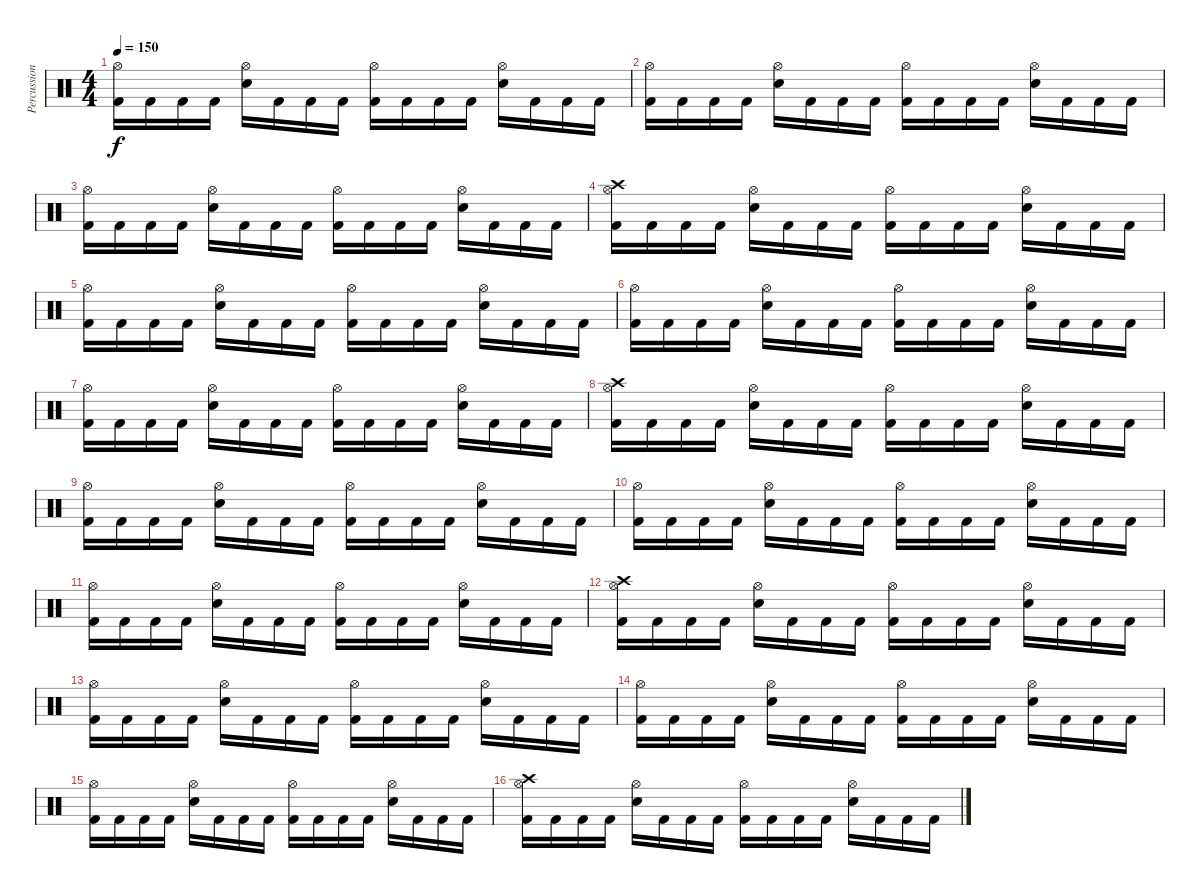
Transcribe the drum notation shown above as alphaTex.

\track ("Percussions" "Percussion") {instrument percussion}
\staff {score}
\articulation defaults
\ts (4 4)
\tempo 150
\clef neutral
\ks c
("Hi-Hat (open)" "Kick (hit) 2").16{dy f} "Kick (hit) 2".16 "Kick (hit) 2".16 "Kick (hit) 2".16 ("Hi-Hat (open)" "Electric Snare (hit)").16 "Kick (hit) 2".16 "Kick (hit) 2".16 "Kick (hit) 2".16 ("Hi-Hat (open)" "Kick (hit) 2").16 "Kick (hit) 2".16 "Kick (hit) 2".16 "Kick (hit) 2".16 ("Hi-Hat (open)" "Electric Snare (hit)").16 "Kick (hit) 2".16 "Kick (hit) 2".16 "Kick (hit) 2".16 |
("Hi-Hat (open)" "Kick (hit) 2").16 "Kick (hit) 2".16 "Kick (hit) 2".16 "Kick (hit) 2".16 ("Hi-Hat (open)" "Electric Snare (hit)").16 "Kick (hit) 2".16 "Kick (hit) 2".16 "Kick (hit) 2".16 ("Hi-Hat (open)" "Kick (hit) 2").16 "Kick (hit) 2".16 "Kick (hit) 2".16 "Kick (hit) 2".16 ("Hi-Hat (open)" "Electric Snare (hit)").16 "Kick (hit) 2".16 "Kick (hit) 2".16 "Kick (hit) 2".16 |
("Hi-Hat (open)" "Kick (hit) 2").16 "Kick (hit) 2".16 "Kick (hit) 2".16 "Kick (hit) 2".16 ("Hi-Hat (open)" "Electric Snare (hit)").16 "Kick (hit) 2".16 "Kick (hit) 2".16 "Kick (hit) 2".16 ("Hi-Hat (open)" "Kick (hit) 2").16 "Kick (hit) 2".16 "Kick (hit) 2".16 "Kick (hit) 2".16 ("Hi-Hat (open)" "Electric Snare (hit)").16 "Kick (hit) 2".16 "Kick (hit) 2".16 "Kick (hit) 2".16 |
("Crash high (hit)" "Hi-Hat (open)" "Kick (hit) 2").16 "Kick (hit) 2".16 "Kick (hit) 2".16 "Kick (hit) 2".16 ("Hi-Hat (open)" "Electric Snare (hit)").16 "Kick (hit) 2".16 "Kick (hit) 2".16 "Kick (hit) 2".16 ("Hi-Hat (open)" "Kick (hit) 2").16 "Kick (hit) 2".16 "Kick (hit) 2".16 "Kick (hit) 2".16 ("Hi-Hat (open)" "Electric Snare (hit)").16 "Kick (hit) 2".16 "Kick (hit) 2".16 "Kick (hit) 2".16 |
("Hi-Hat (open)" "Kick (hit) 2").16 "Kick (hit) 2".16 "Kick (hit) 2".16 "Kick (hit) 2".16 ("Hi-Hat (open)" "Electric Snare (hit)").16 "Kick (hit) 2".16 "Kick (hit) 2".16 "Kick (hit) 2".16 ("Hi-Hat (open)" "Kick (hit) 2").16 "Kick (hit) 2".16 "Kick (hit) 2".16 "Kick (hit) 2".16 ("Hi-Hat (open)" "Electric Snare (hit)").16 "Kick (hit) 2".16 "Kick (hit) 2".16 "Kick (hit) 2".16 |
("Hi-Hat (open)" "Kick (hit) 2").16 "Kick (hit) 2".16 "Kick (hit) 2".16 "Kick (hit) 2".16 ("Hi-Hat (open)" "Electric Snare (hit)").16 "Kick (hit) 2".16 "Kick (hit) 2".16 "Kick (hit) 2".16 ("Hi-Hat (open)" "Kick (hit) 2").16 "Kick (hit) 2".16 "Kick (hit) 2".16 "Kick (hit) 2".16 ("Hi-Hat (open)" "Electric Snare (hit)").16 "Kick (hit) 2".16 "Kick (hit) 2".16 "Kick (hit) 2".16 |
("Hi-Hat (open)" "Kick (hit) 2").16 "Kick (hit) 2".16 "Kick (hit) 2".16 "Kick (hit) 2".16 ("Hi-Hat (open)" "Electric Snare (hit)").16 "Kick (hit) 2".16 "Kick (hit) 2".16 "Kick (hit) 2".16 ("Hi-Hat (open)" "Kick (hit) 2").16 "Kick (hit) 2".16 "Kick (hit) 2".16 "Kick (hit) 2".16 ("Hi-Hat (open)" "Electric Snare (hit)").16 "Kick (hit) 2".16 "Kick (hit) 2".16 "Kick (hit) 2".16 |
("Crash high (hit)" "Hi-Hat (open)" "Kick (hit) 2").16 "Kick (hit) 2".16 "Kick (hit) 2".16 "Kick (hit) 2".16 ("Hi-Hat (open)" "Electric Snare (hit)").16 "Kick (hit) 2".16 "Kick (hit) 2".16 "Kick (hit) 2".16 ("Hi-Hat (open)" "Kick (hit) 2").16 "Kick (hit) 2".16 "Kick (hit) 2".16 "Kick (hit) 2".16 ("Hi-Hat (open)" "Electric Snare (hit)").16 "Kick (hit) 2".16 "Kick (hit) 2".16 "Kick (hit) 2".16 |
("Hi-Hat (open)" "Kick (hit) 2").16 "Kick (hit) 2".16 "Kick (hit) 2".16 "Kick (hit) 2".16 ("Hi-Hat (open)" "Electric Snare (hit)").16 "Kick (hit) 2".16 "Kick (hit) 2".16 "Kick (hit) 2".16 ("Hi-Hat (open)" "Kick (hit) 2").16 "Kick (hit) 2".16 "Kick (hit) 2".16 "Kick (hit) 2".16 ("Hi-Hat (open)" "Electric Snare (hit)").16 "Kick (hit) 2".16 "Kick (hit) 2".16 "Kick (hit) 2".16 |
("Hi-Hat (open)" "Kick (hit) 2").16 "Kick (hit) 2".16 "Kick (hit) 2".16 "Kick (hit) 2".16 ("Hi-Hat (open)" "Electric Snare (hit)").16 "Kick (hit) 2".16 "Kick (hit) 2".16 "Kick (hit) 2".16 ("Hi-Hat (open)" "Kick (hit) 2").16 "Kick (hit) 2".16 "Kick (hit) 2".16 "Kick (hit) 2".16 ("Hi-Hat (open)" "Electric Snare (hit)").16 "Kick (hit) 2".16 "Kick (hit) 2".16 "Kick (hit) 2".16 |
("Hi-Hat (open)" "Kick (hit) 2").16 "Kick (hit) 2".16 "Kick (hit) 2".16 "Kick (hit) 2".16 ("Hi-Hat (open)" "Electric Snare (hit)").16 "Kick (hit) 2".16 "Kick (hit) 2".16 "Kick (hit) 2".16 ("Hi-Hat (open)" "Kick (hit) 2").16 "Kick (hit) 2".16 "Kick (hit) 2".16 "Kick (hit) 2".16 ("Hi-Hat (open)" "Electric Snare (hit)").16 "Kick (hit) 2".16 "Kick (hit) 2".16 "Kick (hit) 2".16 |
("Crash high (hit)" "Hi-Hat (open)" "Kick (hit) 2").16 "Kick (hit) 2".16 "Kick (hit) 2".16 "Kick (hit) 2".16 ("Hi-Hat (open)" "Electric Snare (hit)").16 "Kick (hit) 2".16 "Kick (hit) 2".16 "Kick (hit) 2".16 ("Hi-Hat (open)" "Kick (hit) 2").16 "Kick (hit) 2".16 "Kick (hit) 2".16 "Kick (hit) 2".16 ("Hi-Hat (open)" "Electric Snare (hit)").16 "Kick (hit) 2".16 "Kick (hit) 2".16 "Kick (hit) 2".16 |
("Hi-Hat (open)" "Kick (hit) 2").16 "Kick (hit) 2".16 "Kick (hit) 2".16 "Kick (hit) 2".16 ("Hi-Hat (open)" "Electric Snare (hit)").16 "Kick (hit) 2".16 "Kick (hit) 2".16 "Kick (hit) 2".16 ("Hi-Hat (open)" "Kick (hit) 2").16 "Kick (hit) 2".16 "Kick (hit) 2".16 "Kick (hit) 2".16 ("Hi-Hat (open)" "Electric Snare (hit)").16 "Kick (hit) 2".16 "Kick (hit) 2".16 "Kick (hit) 2".16 |
("Hi-Hat (open)" "Kick (hit) 2").16 "Kick (hit) 2".16 "Kick (hit) 2".16 "Kick (hit) 2".16 ("Hi-Hat (open)" "Electric Snare (hit)").16 "Kick (hit) 2".16 "Kick (hit) 2".16 "Kick (hit) 2".16 ("Hi-Hat (open)" "Kick (hit) 2").16 "Kick (hit) 2".16 "Kick (hit) 2".16 "Kick (hit) 2".16 ("Hi-Hat (open)" "Electric Snare (hit)").16 "Kick (hit) 2".16 "Kick (hit) 2".16 "Kick (hit) 2".16 |
("Hi-Hat (open)" "Kick (hit) 2").16 "Kick (hit) 2".16 "Kick (hit) 2".16 "Kick (hit) 2".16 ("Hi-Hat (open)" "Electric Snare (hit)").16 "Kick (hit) 2".16 "Kick (hit) 2".16 "Kick (hit) 2".16 ("Hi-Hat (open)" "Kick (hit) 2").16 "Kick (hit) 2".16 "Kick (hit) 2".16 "Kick (hit) 2".16 ("Hi-Hat (open)" "Electric Snare (hit)").16 "Kick (hit) 2".16 "Kick (hit) 2".16 "Kick (hit) 2".16 |
("Crash high (hit)" "Hi-Hat (open)" "Kick (hit) 2").16 "Kick (hit) 2".16 "Kick (hit) 2".16 "Kick (hit) 2".16 ("Hi-Hat (open)" "Electric Snare (hit)").16 "Kick (hit) 2".16 "Kick (hit) 2".16 "Kick (hit) 2".16 ("Hi-Hat (open)" "Kick (hit) 2").16 "Kick (hit) 2".16 "Kick (hit) 2".16 "Kick (hit) 2".16 ("Hi-Hat (open)" "Electric Snare (hit)").16 "Kick (hit) 2".16 "Kick (hit) 2".16 "Kick (hit) 2".16
